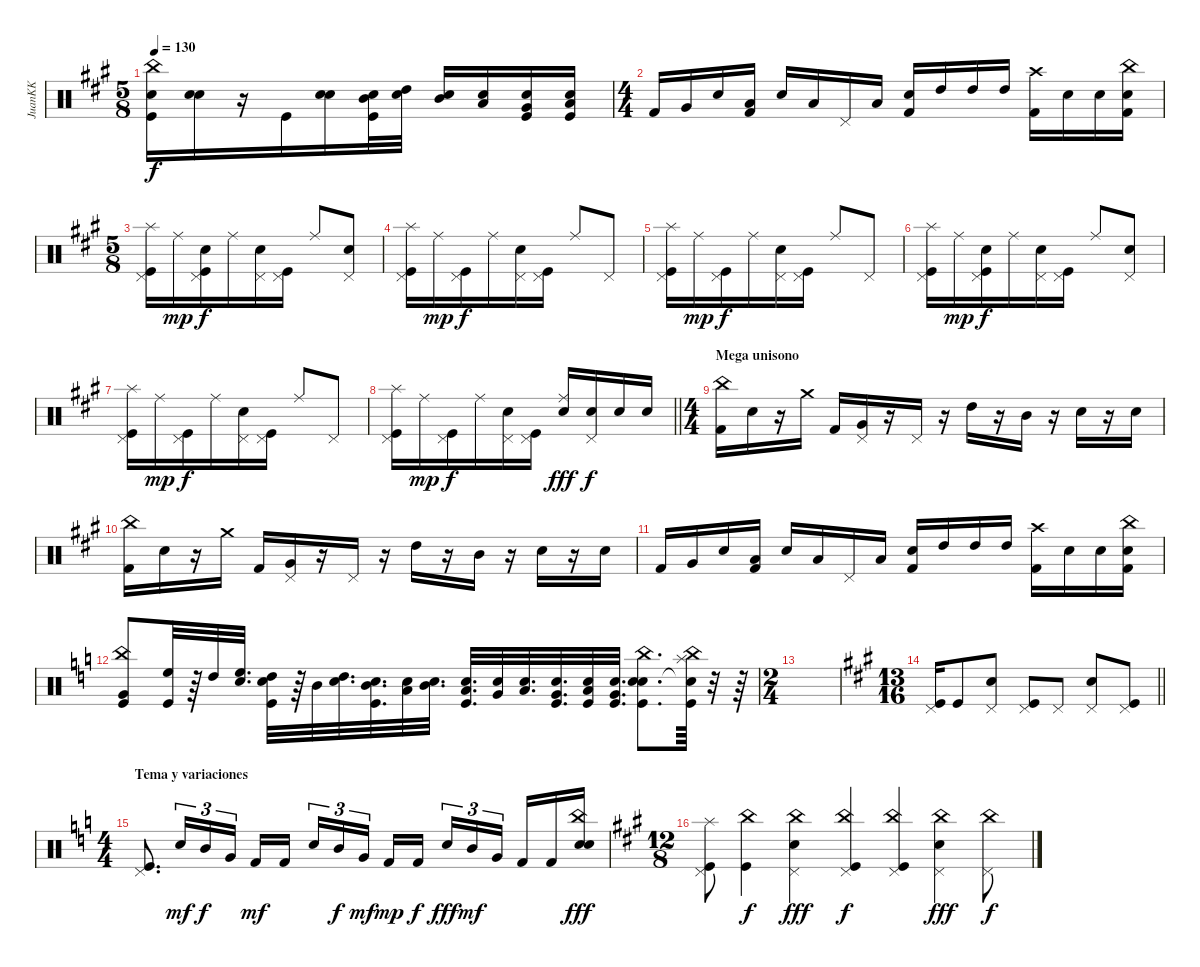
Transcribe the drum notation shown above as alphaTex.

\track ("JuanKK" "JuanKK") {instrument percussion}
\staff {score}
\articulation defaults
\ts (5 8)
\tempo 130
\clef neutral
\ks a
("Snare (hit)" "Kick (hit)" "China (hit)").16{dy f} ("Snare (hit)" "Snare (hit) 2").16 r.16 "Kick (hit)".16 ("Snare (hit)" "Snare (hit) 2").16 ("Snare (hit)" "Kick (hit)" "Mid Tom (hit)").32 ("Snare (hit)" "High Tom (hit)").32 ("Snare (hit)" "Mid Tom (hit)").16 ("Snare (hit)" "Low Tom (hit)").16 ("Snare (hit)" "Kick (hit)" "Very Low Tom (hit)").16 ("Snare (hit)" "Kick (hit)" "Low Floor Tom (hit)").16 |
\ts (4 4)
"Kick (hit) 2".16 "Very Low Tom (hit)".16 "Electric Snare (hit)".16 ("Kick (hit) 2" "Low Tom (hit)").16 "Electric Snare (hit)".16 "Low Tom (hit)".16 "Pedal Hi-Hat (hit)".16 "Low Tom (hit)".16 ("Electric Snare (hit)" "Kick (hit) 2").16 "High Tom (hit)".16 "High Tom (hit)".16 "High Tom (hit)".16 ("Kick (hit) 2" "Crash high (hit)").16 "Electric Snare (hit)".16 "Electric Snare (hit)".16 ("Kick (hit) 2" "Electric Snare (hit)" "China (hit)").16 |
\ts (5 8)
("Kick (hit)" "Pedal Hi-Hat (hit)" "Splash (hit)").16 "Ride (middle)".16{dy mp} ("Kick (hit)" "Electric Snare (hit)" "Pedal Hi-Hat (hit)").16{dy f} "Ride (middle)".16 ("Electric Snare (hit)" "Pedal Hi-Hat (hit)").16 ("Kick (hit)" "Pedal Hi-Hat (hit)").16 "Ride (middle)".8 ("Electric Snare (hit)" "Pedal Hi-Hat (hit)").8 |
("Kick (hit)" "Pedal Hi-Hat (hit)" "Splash (hit)").16 "Ride (middle)".16{dy mp} ("Kick (hit)" "Pedal Hi-Hat (hit)").16{dy f} "Ride (middle)".16 ("Electric Snare (hit)" "Pedal Hi-Hat (hit)").16 ("Kick (hit)" "Pedal Hi-Hat (hit)").16 "Ride (middle)".8 "Pedal Hi-Hat (hit)".8 |
("Kick (hit)" "Pedal Hi-Hat (hit)" "Splash (hit)").16 "Ride (middle)".16{dy mp} ("Kick (hit)" "Pedal Hi-Hat (hit)").16{dy f} "Ride (middle)".16 ("Electric Snare (hit)" "Pedal Hi-Hat (hit)").16 ("Kick (hit)" "Pedal Hi-Hat (hit)").16 "Ride (middle)".8 "Pedal Hi-Hat (hit)".8 |
("Kick (hit)" "Pedal Hi-Hat (hit)" "Splash (hit)").16 "Ride (middle)".16{dy mp} ("Kick (hit)" "Electric Snare (hit)" "Pedal Hi-Hat (hit)").16{dy f} "Ride (middle)".16 ("Electric Snare (hit)" "Pedal Hi-Hat (hit)").16 ("Kick (hit)" "Pedal Hi-Hat (hit)").16 "Ride (middle)".8 ("Electric Snare (hit)" "Pedal Hi-Hat (hit)").8 |
("Kick (hit)" "Pedal Hi-Hat (hit)" "Splash (hit)").16 "Ride (middle)".16{dy mp} ("Kick (hit)" "Pedal Hi-Hat (hit)").16{dy f} "Ride (middle)".16 ("Electric Snare (hit)" "Pedal Hi-Hat (hit)").16 ("Kick (hit)" "Pedal Hi-Hat (hit)").16 "Ride (middle)".8 "Pedal Hi-Hat (hit)".8 |
\barLineRight lightlight
("Kick (hit)" "Pedal Hi-Hat (hit)" "Splash (hit)").16 "Ride (middle)".16{dy mp} ("Kick (hit)" "Pedal Hi-Hat (hit)").16{dy f} "Ride (middle)".16 ("Electric Snare (hit)" "Pedal Hi-Hat (hit)").16 ("Kick (hit)" "Pedal Hi-Hat (hit)").16 ("Electric Snare (hit)" "Ride (middle)").16{dy fff} ("Electric Snare (hit)" "Pedal Hi-Hat (hit)").16{dy f} "Electric Snare (hit)".16 "Electric Snare (hit)".16 |
\ts (4 4)
\section ("" "Mega unisono")
("China (hit)" "Kick (hit) 2").16 "Electric Snare (hit)".16 r.16 "Crash medium (hit)".16 "Kick (hit) 2".16 ("Very Low Tom (hit)" "Pedal Hi-Hat (hit)").16 r.16 "Pedal Hi-Hat (hit)".16 r.16 "High Tom (hit)".16 r.16 "Mid Tom (hit)".16 r.16 "Snare (hit) 2".16 r.16 "Snare (hit) 2".16 |
("China (hit)" "Kick (hit) 2").16 "Electric Snare (hit)".16 r.16 "Crash medium (hit)".16 "Kick (hit) 2".16 ("Very Low Tom (hit)" "Pedal Hi-Hat (hit)").16 r.16 "Pedal Hi-Hat (hit)".16 r.16 "High Tom (hit)".16 r.16 "Mid Tom (hit)".16 r.16 "Snare (hit) 2".16 r.16 "Snare (hit) 2".16 |
"Kick (hit) 2".16 "Very Low Tom (hit)".16 "Electric Snare (hit)".16 ("Kick (hit) 2" "Low Tom (hit)").16 "Electric Snare (hit)".16 "Low Tom (hit)".16 "Pedal Hi-Hat (hit)".16 "Low Tom (hit)".16 ("Electric Snare (hit)" "Kick (hit) 2").16 "High Tom (hit)".16 "High Tom (hit)".16 "High Tom (hit)".16 ("Kick (hit) 2" "Crash high (hit)").16 "Electric Snare (hit)".16 "Electric Snare (hit)".16 ("Kick (hit) 2" "Electric Snare (hit)" "China (hit)").16 |
\ks c
("Kick (hit)" "Very Low Tom (hit)" "China (hit)").8 ("Kick (hit)" "High Floor Tom (hit)").32 r.64 "High Tom (hit)".32 ("Snare (hit)" "High Floor Tom (hit)").32{d} ("Snare (hit)" "Kick (hit)" "High Tom (hit)").32 r.64 "Mid Tom (hit)".32 ("Snare (hit)" "High Tom (hit)").32{d} ("Snare (hit)" "Kick (hit)" "Mid Tom (hit)").32{d} ("Snare (hit)" "Low Tom (hit)").32 ("Snare (hit)" "Mid Tom (hit)").32{d} ("Snare (hit)" "Kick (hit)" "Low Tom (hit)").32{d} ("Snare (hit)" "Very Low Tom (hit)").32 ("Snare (hit)" "Low Tom (hit)").32{d} ("Snare (hit)" "Kick (hit)" "Very Low Tom (hit)").32{d} ("Snare (hit)" "Kick (hit)" "Low Floor Tom (hit)").32 ("Snare (hit)" "Kick (hit)" "Very Low Tom (hit)").32{d} ("Snare (hit)" "Kick (hit)" "Snare (hit) 2" "China (hit)").8{d} ("Snare (hit)"{t} "Kick (hit)" "China (hit)" "Splash (hit)").64 r.32 r.64 |
\ts (2 4)
|
\ts (13 16)
\barLineRight lightlight
\ks a
("Kick (hit)" "Pedal Hi-Hat (hit)").16 "Kick (hit)".8 ("Electric Snare (hit)" "Pedal Hi-Hat (hit)").8 ("Kick (hit)" "Pedal Hi-Hat (hit)").8 "Pedal Hi-Hat (hit)".8 ("Electric Snare (hit)" "Pedal Hi-Hat (hit)").8 ("Kick (hit)" "Pedal Hi-Hat (hit)").8 |
\ts (4 4)
\section ("" "Tema y variaciones")
\ks c
("Kick (hit)" "Pedal Hi-Hat (hit)").8{d} "Electric Snare (hit)".16{tu (3 2) dy mf} "Mid Tom (hit)".16{tu (3 2) dy f} "Very Low Tom (hit)".16{tu (3 2) beam splitsecondary} "Kick (hit) 2".16{dy mf} "Kick (hit) 2".16{beam splitsecondary} "Electric Snare (hit)".16{tu (3 2)} "Mid Tom (hit)".16{tu (3 2) dy f} "Very Low Tom (hit)".16{tu (3 2) dy mf beam splitsecondary} "Kick (hit) 2".16{dy mp} "Kick (hit) 2".16{dy f beam splitsecondary} "Electric Snare (hit)".16{tu (3 2) dy fff} "Mid Tom (hit)".16{tu (3 2) dy mf} "Very Low Tom (hit)".16{tu (3 2) beam splitsecondary} "Kick (hit) 2".16 "Kick (hit) 2".16 ("Snare (hit) 2" "Electric Snare (hit)" "China (hit)").16{dy fff} |
\ts (12 8)
\ks a
("Kick (hit)" "Pedal Hi-Hat (hit)" "Splash (hit)").8 ("Kick (hit)" "China (hit)").4{dy f} ("Electric Snare (hit)" "Pedal Hi-Hat (hit)" "China (hit)").4{dy fff} ("Kick (hit)" "Pedal Hi-Hat (hit)" "China (hit)").4{dy f} ("Kick (hit)" "Pedal Hi-Hat (hit)" "China (hit)").4 ("Electric Snare (hit)" "Pedal Hi-Hat (hit)" "China (hit)").4{dy fff} ("Pedal Hi-Hat (hit)" "China (hit)").8{dy f}
